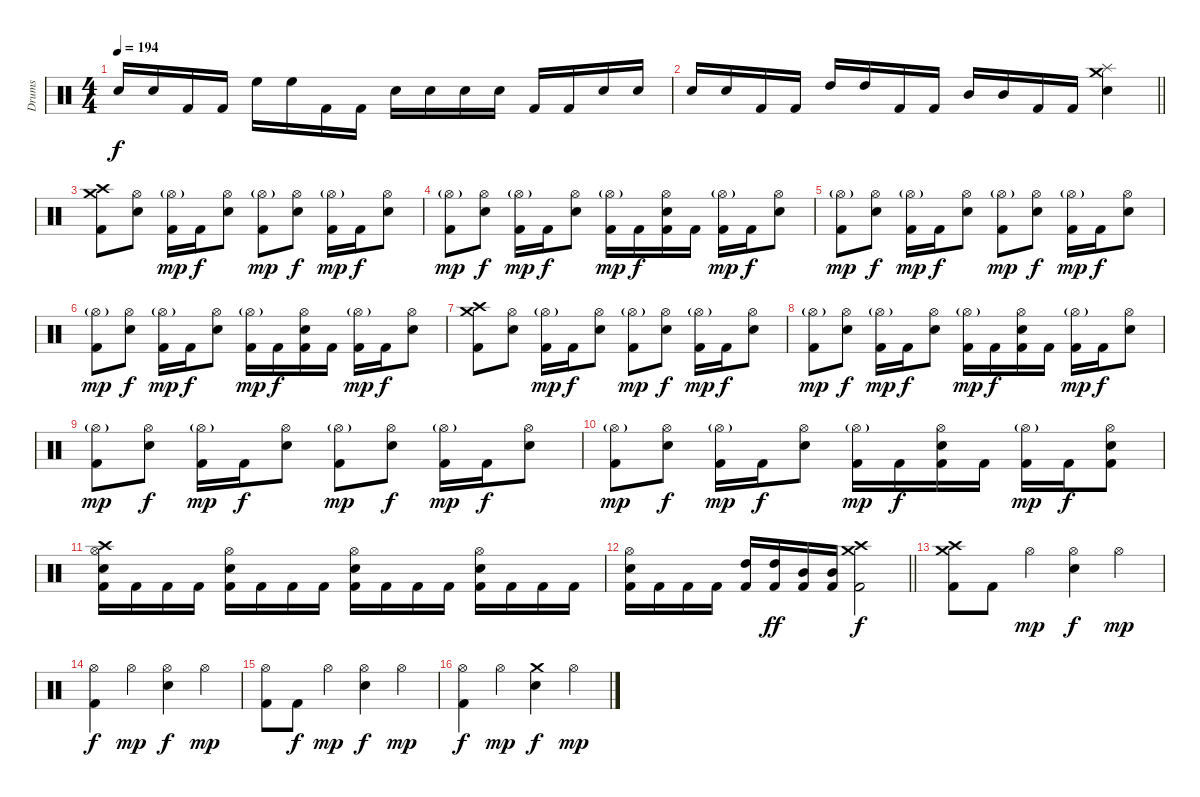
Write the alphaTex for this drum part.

\track ("Drums" "Drums") {instrument percussion}
\staff {score}
\articulation defaults
\ts (4 4)
\tempo 194
\clef neutral
\ks c "Electric Snare (hit)".16{dy f} "Electric Snare (hit)".16 "Kick (hit) 2".16 "Kick (hit) 2".16 "High Floor Tom (hit)".16 "High Floor Tom (hit)".16 "Kick (hit) 2".16 "Kick (hit) 2".16 "Electric Snare (hit)".16 "Electric Snare (hit)".16 "Electric Snare (hit)".16 "Electric Snare (hit)".16 "Kick (hit) 2".16 "Kick (hit) 2".16 "Electric Snare (hit)".16 "Electric Snare (hit)".16
|
\barLineRight lightlight "Electric Snare (hit)".16 "Electric Snare (hit)".16 "Kick (hit) 2".16 "Kick (hit) 2".16 "High Tom (hit)".16 "High Tom (hit)".16 "Kick (hit) 2".16 "Kick (hit) 2".16 "Mid Tom (hit)".16 "Mid Tom (hit)".16 "Kick (hit) 2".16 "Kick (hit) 2".16
("Crash medium (hit)" "Splash (hit)" "Electric Snare (hit)").4 |
("Crash high (hit)" "Crash medium (hit)" "Kick (hit) 2").8 ("Hi-Hat (open)" "Electric Snare (hit)").8 ("Hi-Hat (open)"{g} "Kick (hit) 2").16{dy mp} "Kick (hit) 2".16{dy f} ("Hi-Hat (open)" "Electric Snare (hit)").8 ("Hi-Hat (open)"{g} "Kick (hit) 2").8{dy mp} ("Hi-Hat (open)" "Electric Snare (hit)").8{dy f} ("Hi-Hat (open)"{g} "Kick (hit) 2").16{dy mp} "Kick (hit) 2".16{dy f} ("Hi-Hat (open)" "Electric Snare (hit)").8 |
("Hi-Hat (open)"{g} "Kick (hit) 2").8{dy mp} ("Hi-Hat (open)" "Electric Snare (hit)").8{dy f} ("Hi-Hat (open)"{g} "Kick (hit) 2").16{dy mp} "Kick (hit) 2".16{dy f} ("Hi-Hat (open)" "Electric Snare (hit)").8 ("Hi-Hat (open)"{g} "Kick (hit) 2").16{dy mp} "Kick (hit) 2".16{dy f} ("Hi-Hat (open)" "Electric Snare (hit)" "Kick (hit) 2").16 "Kick (hit) 2".16 ("Hi-Hat (open)"{g} "Kick (hit) 2").16{dy mp} "Kick (hit) 2".16{dy f} ("Hi-Hat (open)" "Electric Snare (hit)").8 |
("Hi-Hat (open)"{g} "Kick (hit) 2").8{dy mp} ("Hi-Hat (open)" "Electric Snare (hit)").8{dy f} ("Hi-Hat (open)"{g} "Kick (hit) 2").16{dy mp} "Kick (hit) 2".16{dy f} ("Hi-Hat (open)" "Electric Snare (hit)").8 ("Hi-Hat (open)"{g} "Kick (hit) 2").8{dy mp} ("Hi-Hat (open)" "Electric Snare (hit)").8{dy f} ("Hi-Hat (open)"{g} "Kick (hit) 2").16{dy mp} "Kick (hit) 2".16{dy f} ("Hi-Hat (open)" "Electric Snare (hit)").8 |
("Hi-Hat (open)"{g} "Kick (hit) 2").8{dy mp} ("Hi-Hat (open)" "Electric Snare (hit)").8{dy f} ("Hi-Hat (open)"{g} "Kick (hit) 2").16{dy mp} "Kick (hit) 2".16{dy f} ("Hi-Hat (open)" "Electric Snare (hit)").8 ("Hi-Hat (open)"{g} "Kick (hit) 2").16{dy mp} "Kick (hit) 2".16{dy f} ("Hi-Hat (open)" "Electric Snare (hit)" "Kick (hit) 2").16 "Kick (hit) 2".16 ("Hi-Hat (open)"{g} "Kick (hit) 2").16{dy mp} "Kick (hit) 2".16{dy f} ("Hi-Hat (open)" "Electric Snare (hit)").8 |
("Crash high (hit)" "Crash medium (hit)" "Kick (hit) 2").8 ("Hi-Hat (open)" "Electric Snare (hit)").8 ("Hi-Hat (open)"{g} "Kick (hit) 2").16{dy mp} "Kick (hit) 2".16{dy f} ("Hi-Hat (open)" "Electric Snare (hit)").8 ("Hi-Hat (open)"{g} "Kick (hit) 2").8{dy mp} ("Hi-Hat (open)" "Electric Snare (hit)").8{dy f} ("Hi-Hat (open)"{g} "Kick (hit) 2").16{dy mp} "Kick (hit) 2".16{dy f} ("Hi-Hat (open)" "Electric Snare (hit)").8 |
("Hi-Hat (open)"{g} "Kick (hit) 2").8{dy mp} ("Hi-Hat (open)" "Electric Snare (hit)").8{dy f} ("Hi-Hat (open)"{g} "Kick (hit) 2").16{dy mp} "Kick (hit) 2".16{dy f} ("Hi-Hat (open)" "Electric Snare (hit)").8 ("Hi-Hat (open)"{g} "Kick (hit) 2").16{dy mp} "Kick (hit) 2".16{dy f} ("Hi-Hat (open)" "Electric Snare (hit)" "Kick (hit) 2").16 "Kick (hit) 2".16 ("Hi-Hat (open)"{g} "Kick (hit) 2").16{dy mp} "Kick (hit) 2".16{dy f} ("Hi-Hat (open)" "Electric Snare (hit)").8 |
("Hi-Hat (open)"{g} "Kick (hit) 2").8{dy mp} ("Hi-Hat (open)" "Electric Snare (hit)").8{dy f} ("Hi-Hat (open)"{g} "Kick (hit) 2").16{dy mp} "Kick (hit) 2".16{dy f} ("Hi-Hat (open)" "Electric Snare (hit)").8 ("Hi-Hat (open)"{g} "Kick (hit) 2").8{dy mp} ("Hi-Hat (open)" "Electric Snare (hit)").8{dy f} ("Hi-Hat (open)"{g} "Kick (hit) 2").16{dy mp} "Kick (hit) 2".16{dy f} ("Hi-Hat (open)" "Electric Snare (hit)").8 |
("Hi-Hat (open)"{g} "Kick (hit) 2").8{dy mp} ("Hi-Hat (open)" "Electric Snare (hit)").8{dy f} ("Hi-Hat (open)"{g} "Kick (hit) 2").16{dy mp} "Kick (hit) 2".16{dy f} ("Hi-Hat (open)" "Electric Snare (hit)").8 ("Hi-Hat (open)"{g} "Kick (hit) 2").16{dy mp} "Kick (hit) 2".16{dy f} ("Hi-Hat (open)" "Electric Snare (hit)" "Kick (hit) 2").16 "Kick (hit) 2".16 ("Hi-Hat (open)"{g} "Kick (hit) 2").16{dy mp} "Kick (hit) 2".16{dy f} ("Hi-Hat (open)" "Electric Snare (hit)" "Kick (hit) 2").8 |
("Crash high (hit)" "Hi-Hat (open)" "Electric Snare (hit)" "Kick (hit) 2").16 "Kick (hit) 2".16 "Kick (hit) 2".16 "Kick (hit) 2".16 ("Hi-Hat (open)" "Electric Snare (hit)" "Kick (hit) 2").16 "Kick (hit) 2".16 "Kick (hit) 2".16 "Kick (hit) 2".16 ("Hi-Hat (open)" "Electric Snare (hit)" "Kick (hit) 2").16 "Kick (hit) 2".16 "Kick (hit) 2".16 "Kick (hit) 2".16 ("Hi-Hat (open)" "Electric Snare (hit)" "Kick (hit) 2").16 "Kick (hit) 2".16 "Kick (hit) 2".16 "Kick (hit) 2".16 |
\barLineRight lightlight
("Hi-Hat (open)" "Electric Snare (hit)" "Kick (hit) 2").16 "Kick (hit) 2".16 "Kick (hit) 2".16 "Kick (hit) 2".16 ("High Tom (hit)" "Kick (hit) 2").16 ("High Tom (hit)" "Kick (hit) 2").16{dy ff} ("Mid Tom (hit)" "Kick (hit) 2").16 ("Mid Tom (hit)" "Kick (hit) 2").16 ("Crash high (hit)" "Crash medium (hit)" "Kick (hit) 2").2{dy f} |
("Crash high (hit)" "Crash medium (hit)" "Kick (hit) 2").8 "Kick (hit) 2".8 "Hi-Hat (open)".4{dy mp} ("Hi-Hat (open)" "Electric Snare (hit)").4{dy f} "Hi-Hat (open)".4{dy mp} |
("Hi-Hat (open)" "Kick (hit) 2").4{dy f} "Hi-Hat (open)".4{dy mp} ("Hi-Hat (open)" "Electric Snare (hit)").4{dy f} "Hi-Hat (open)".4{dy mp} |
("Hi-Hat (open)" "Kick (hit) 2").8 "Kick (hit) 2".8{dy f} "Hi-Hat (open)".4{dy mp} ("Hi-Hat (open)" "Electric Snare (hit)").4{dy f} "Hi-Hat (open)".4{dy mp} |
("Hi-Hat (open)" "Kick (hit) 2").4{dy f} "Hi-Hat (open)".4{dy mp} ("Crash medium (hit)" "Electric Snare (hit)").4{dy f} "Hi-Hat (open)".4{dy mp}
